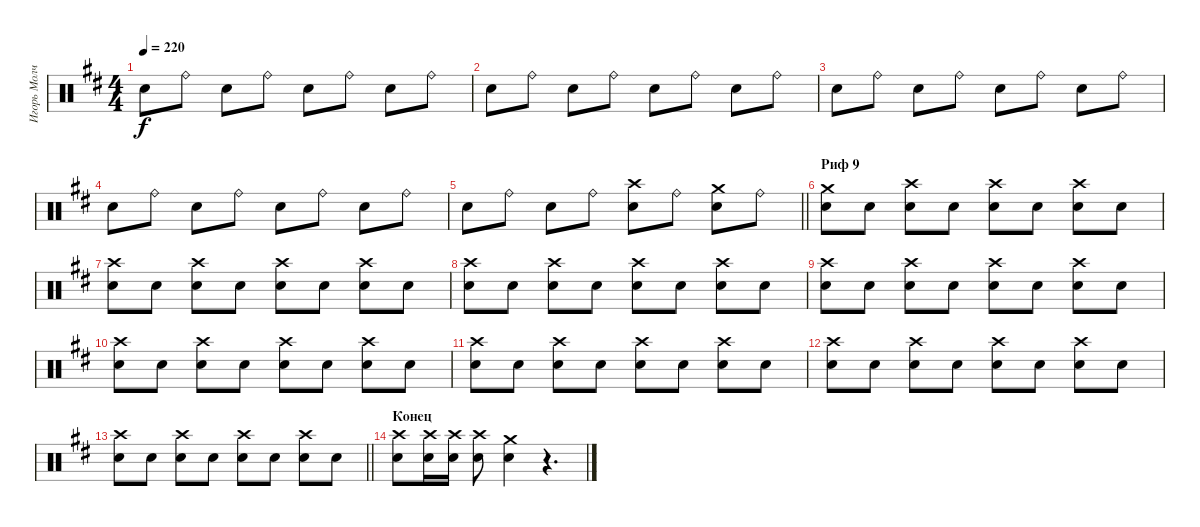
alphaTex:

\track ("Игорь Молчанов" "Игорь Молч") {instrument percussion}
\staff {score}
\articulation defaults
\ts (4 4)
\tempo 220
\clef neutral
\ks d "Snare (hit) 2".8{dy f} "Ride (bell)".8 "Snare (hit) 2".8 "Ride (bell)".8 "Snare (hit) 2".8 "Ride (bell)".8 "Snare (hit) 2".8 "Ride (bell)".8
|
"Snare (hit) 2".8 "Ride (bell)".8 "Snare (hit) 2".8 "Ride (bell)".8 "Snare (hit) 2".8 "Ride (bell)".8 "Snare (hit) 2".8 "Ride (bell)".8 |
"Snare (hit) 2".8 "Ride (bell)".8 "Snare (hit) 2".8 "Ride (bell)".8 "Snare (hit) 2".8 "Ride (bell)".8 "Snare (hit) 2".8 "Ride (bell)".8 |
"Snare (hit) 2".8 "Ride (bell)".8 "Snare (hit) 2".8 "Ride (bell)".8 "Snare (hit) 2".8 "Ride (bell)".8 "Snare (hit) 2".8 "Ride (bell)".8 |
\barLineRight lightlight "Snare (hit) 2".8 "Ride (bell)".8 "Snare (hit) 2".8 "Ride (bell)".8
("Crash high (hit)" "Snare (hit) 2").8 "Ride (bell)".8 ("Crash medium (hit)" "Snare (hit) 2").8 "Ride (bell)".8 |
\section ("" "Риф 9")
("Crash medium (hit)" "Snare (hit) 2").8 "Snare (hit) 2".8 ("Crash high (hit)" "Snare (hit) 2").8 "Snare (hit) 2".8 ("Crash high (hit)" "Snare (hit) 2").8 "Snare (hit) 2".8 ("Crash high (hit)" "Snare (hit) 2").8 "Snare (hit) 2".8 |
("Crash high (hit)" "Snare (hit) 2").8 "Snare (hit) 2".8 ("Crash high (hit)" "Snare (hit) 2").8 "Snare (hit) 2".8 ("Crash high (hit)" "Snare (hit) 2").8 "Snare (hit) 2".8 ("Crash high (hit)" "Snare (hit) 2").8 "Snare (hit) 2".8 |
("Crash high (hit)" "Snare (hit) 2").8 "Snare (hit) 2".8 ("Crash high (hit)" "Snare (hit) 2").8 "Snare (hit) 2".8 ("Crash high (hit)" "Snare (hit) 2").8 "Snare (hit) 2".8 ("Crash high (hit)" "Snare (hit) 2").8 "Snare (hit) 2".8 |
("Crash high (hit)" "Snare (hit) 2").8 "Snare (hit) 2".8 ("Crash high (hit)" "Snare (hit) 2").8 "Snare (hit) 2".8 ("Crash high (hit)" "Snare (hit) 2").8 "Snare (hit) 2".8 ("Crash high (hit)" "Snare (hit) 2").8 "Snare (hit) 2".8 |
("Crash high (hit)" "Snare (hit) 2").8 "Snare (hit) 2".8 ("Crash high (hit)" "Snare (hit) 2").8 "Snare (hit) 2".8 ("Crash high (hit)" "Snare (hit) 2").8 "Snare (hit) 2".8 ("Crash high (hit)" "Snare (hit) 2").8 "Snare (hit) 2".8 |
("Crash high (hit)" "Snare (hit) 2").8 "Snare (hit) 2".8 ("Crash high (hit)" "Snare (hit) 2").8 "Snare (hit) 2".8 ("Crash high (hit)" "Snare (hit) 2").8 "Snare (hit) 2".8 ("Crash high (hit)" "Snare (hit) 2").8 "Snare (hit) 2".8 |
("Crash high (hit)" "Snare (hit) 2").8 "Snare (hit) 2".8 ("Crash high (hit)" "Snare (hit) 2").8 "Snare (hit) 2".8 ("Crash high (hit)" "Snare (hit) 2").8 "Snare (hit) 2".8 ("Crash high (hit)" "Snare (hit) 2").8 "Snare (hit) 2".8 |
\barLineRight lightlight
("Crash high (hit)" "Snare (hit) 2").8 "Snare (hit) 2".8 ("Crash high (hit)" "Snare (hit) 2").8 "Snare (hit) 2".8 ("Crash high (hit)" "Snare (hit) 2").8 "Snare (hit) 2".8 ("Crash high (hit)" "Snare (hit) 2").8 "Snare (hit) 2".8 |
\section ("" "Конец")
("Crash high (hit)" "Snare (hit) 2").8 ("Crash high (hit)" "Snare (hit) 2").16 ("Crash high (hit)" "Snare (hit) 2").16 ("Crash high (hit)" "Snare (hit) 2").8 ("Crash medium (hit)" "Snare (hit) 2").4 r.4{d}
